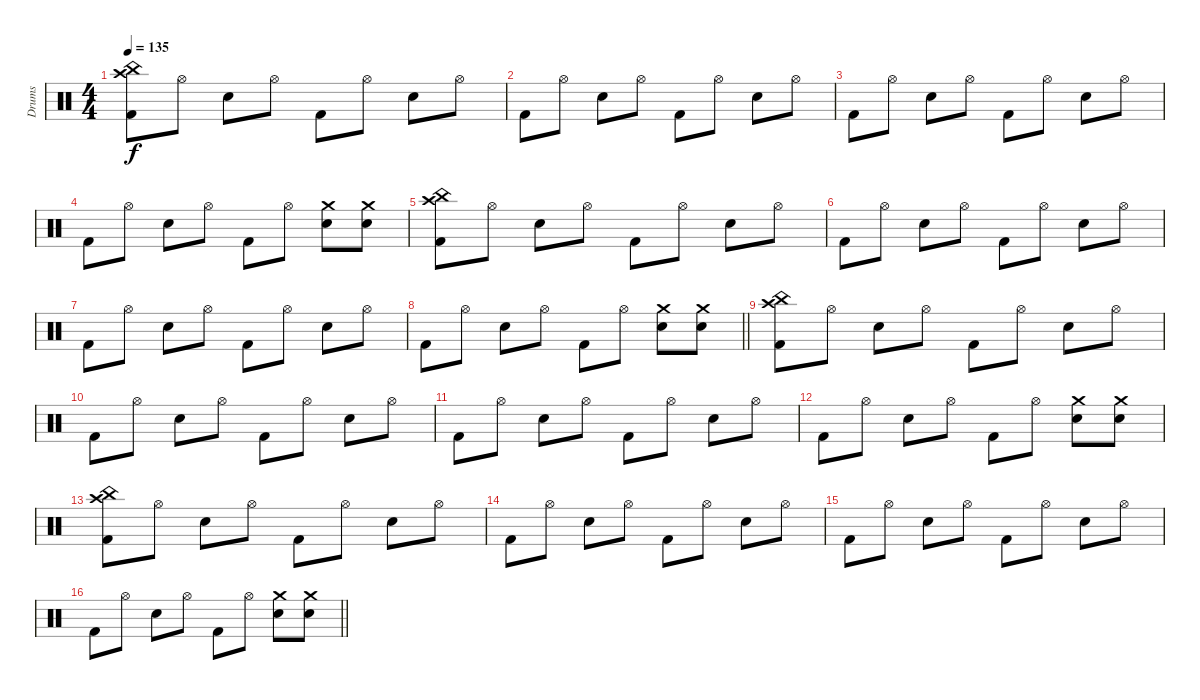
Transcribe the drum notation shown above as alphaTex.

\track ("Drums" "Drums") {instrument percussion}
\staff {score}
\articulation defaults
\ts (4 4)
\section ("" "")
\tempo 135
\clef neutral
\ks c
("China (hit)" "Crash high (hit)" "Kick (hit) 2").8{dy f} "Hi-Hat (open)".8 "Electric Snare (hit)".8 "Hi-Hat (open)".8 "Kick (hit) 2".8 "Hi-Hat (open)".8 "Electric Snare (hit)".8 "Hi-Hat (open)".8 |
"Kick (hit) 2".8 "Hi-Hat (open)".8 "Electric Snare (hit)".8 "Hi-Hat (open)".8 "Kick (hit) 2".8 "Hi-Hat (open)".8 "Electric Snare (hit)".8 "Hi-Hat (open)".8 |
"Kick (hit) 2".8 "Hi-Hat (open)".8 "Electric Snare (hit)".8 "Hi-Hat (open)".8 "Kick (hit) 2".8 "Hi-Hat (open)".8 "Electric Snare (hit)".8 "Hi-Hat (open)".8 |
"Kick (hit) 2".8 "Hi-Hat (open)".8 "Electric Snare (hit)".8 "Hi-Hat (open)".8 "Kick (hit) 2".8 "Hi-Hat (open)".8 ("Crash medium (hit)" "Electric Snare (hit)").8 ("Crash medium (hit)" "Electric Snare (hit)").8 |
("China (hit)" "Crash high (hit)" "Kick (hit) 2").8 "Hi-Hat (open)".8 "Electric Snare (hit)".8 "Hi-Hat (open)".8 "Kick (hit) 2".8 "Hi-Hat (open)".8 "Electric Snare (hit)".8 "Hi-Hat (open)".8 |
"Kick (hit) 2".8 "Hi-Hat (open)".8 "Electric Snare (hit)".8 "Hi-Hat (open)".8 "Kick (hit) 2".8 "Hi-Hat (open)".8 "Electric Snare (hit)".8 "Hi-Hat (open)".8 |
"Kick (hit) 2".8 "Hi-Hat (open)".8 "Electric Snare (hit)".8 "Hi-Hat (open)".8 "Kick (hit) 2".8 "Hi-Hat (open)".8 "Electric Snare (hit)".8 "Hi-Hat (open)".8 |
\barLineRight lightlight "Kick (hit) 2".8 "Hi-Hat (open)".8 "Electric Snare (hit)".8 "Hi-Hat (open)".8 "Kick (hit) 2".8 "Hi-Hat (open)".8
("Crash medium (hit)" "Electric Snare (hit)").8 ("Crash medium (hit)" "Electric Snare (hit)").8 |
("China (hit)" "Crash high (hit)" "Kick (hit) 2").8 "Hi-Hat (open)".8 "Electric Snare (hit)".8 "Hi-Hat (open)".8 "Kick (hit) 2".8 "Hi-Hat (open)".8 "Electric Snare (hit)".8 "Hi-Hat (open)".8 |
"Kick (hit) 2".8 "Hi-Hat (open)".8 "Electric Snare (hit)".8 "Hi-Hat (open)".8 "Kick (hit) 2".8 "Hi-Hat (open)".8 "Electric Snare (hit)".8 "Hi-Hat (open)".8 |
"Kick (hit) 2".8 "Hi-Hat (open)".8 "Electric Snare (hit)".8 "Hi-Hat (open)".8 "Kick (hit) 2".8 "Hi-Hat (open)".8 "Electric Snare (hit)".8 "Hi-Hat (open)".8 |
"Kick (hit) 2".8 "Hi-Hat (open)".8 "Electric Snare (hit)".8 "Hi-Hat (open)".8 "Kick (hit) 2".8 "Hi-Hat (open)".8 ("Crash medium (hit)" "Electric Snare (hit)").8 ("Crash medium (hit)" "Electric Snare (hit)").8 |
("China (hit)" "Crash high (hit)" "Kick (hit) 2").8 "Hi-Hat (open)".8 "Electric Snare (hit)".8 "Hi-Hat (open)".8 "Kick (hit) 2".8 "Hi-Hat (open)".8 "Electric Snare (hit)".8 "Hi-Hat (open)".8 |
"Kick (hit) 2".8 "Hi-Hat (open)".8 "Electric Snare (hit)".8 "Hi-Hat (open)".8 "Kick (hit) 2".8 "Hi-Hat (open)".8 "Electric Snare (hit)".8 "Hi-Hat (open)".8 |
"Kick (hit) 2".8 "Hi-Hat (open)".8 "Electric Snare (hit)".8 "Hi-Hat (open)".8 "Kick (hit) 2".8 "Hi-Hat (open)".8 "Electric Snare (hit)".8 "Hi-Hat (open)".8 |
\barLineRight lightlight "Kick (hit) 2".8 "Hi-Hat (open)".8 "Electric Snare (hit)".8 "Hi-Hat (open)".8 "Kick (hit) 2".8 "Hi-Hat (open)".8
("Crash medium (hit)" "Electric Snare (hit)").8 ("Crash medium (hit)" "Electric Snare (hit)").8
